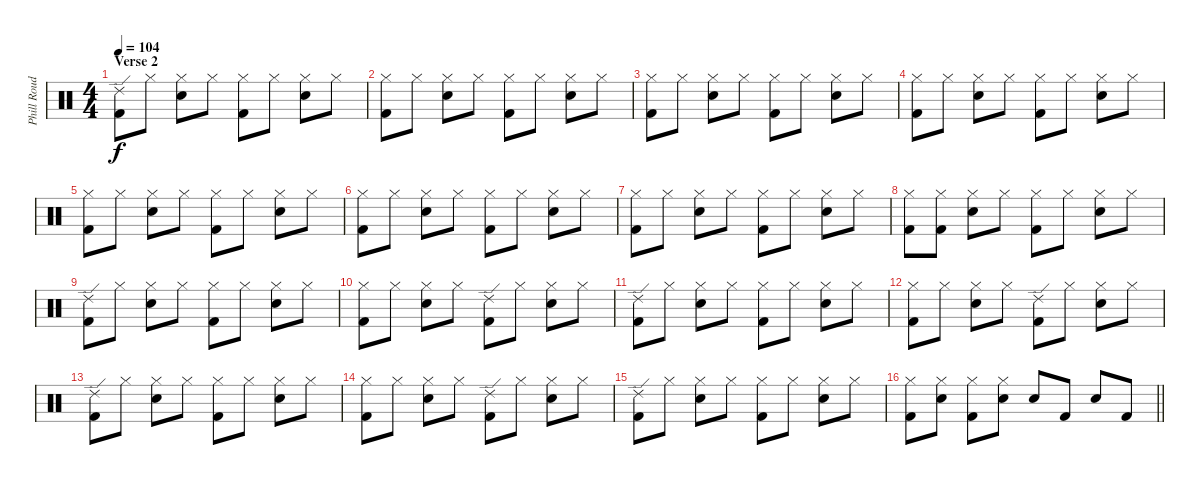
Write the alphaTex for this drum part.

\track ("Phill Roud" "Phill Roud") {instrument percussion}
\staff {score}
\articulation defaults
\ts (4 4)
\section ("" "Verse 2")
\tempo 104
\clef neutral
\ks c
("Kick (hit) 2" "Ride (edge) 2").8{dy f} "Hi-Hat (closed)".8 ("Hi-Hat (closed)" "Snare (hit) 2").8 "Hi-Hat (closed)".8 ("Hi-Hat (closed)" "Kick (hit) 2").8 "Hi-Hat (closed)".8 ("Hi-Hat (closed)" "Snare (hit) 2").8 "Hi-Hat (closed)".8 |
("Hi-Hat (closed)" "Kick (hit) 2").8 "Hi-Hat (closed)".8 ("Hi-Hat (closed)" "Snare (hit) 2").8 "Hi-Hat (closed)".8 ("Hi-Hat (closed)" "Kick (hit) 2").8 "Hi-Hat (closed)".8 ("Hi-Hat (closed)" "Snare (hit) 2").8 "Hi-Hat (closed)".8 |
("Hi-Hat (closed)" "Kick (hit) 2").8 "Hi-Hat (closed)".8 ("Hi-Hat (closed)" "Snare (hit) 2").8 "Hi-Hat (closed)".8 ("Hi-Hat (closed)" "Kick (hit) 2").8 "Hi-Hat (closed)".8 ("Hi-Hat (closed)" "Snare (hit) 2").8 "Hi-Hat (closed)".8 |
("Hi-Hat (closed)" "Kick (hit) 2").8 "Hi-Hat (closed)".8 ("Hi-Hat (closed)" "Snare (hit) 2").8 "Hi-Hat (closed)".8 ("Hi-Hat (closed)" "Kick (hit) 2").8 "Hi-Hat (closed)".8 ("Hi-Hat (closed)" "Snare (hit) 2").8 "Hi-Hat (closed)".8 |
("Hi-Hat (closed)" "Kick (hit) 2").8 "Hi-Hat (closed)".8 ("Hi-Hat (closed)" "Snare (hit) 2").8 "Hi-Hat (closed)".8 ("Hi-Hat (closed)" "Kick (hit) 2").8 "Hi-Hat (closed)".8 ("Hi-Hat (closed)" "Snare (hit) 2").8 "Hi-Hat (closed)".8 |
("Hi-Hat (closed)" "Kick (hit) 2").8 "Hi-Hat (closed)".8 ("Hi-Hat (closed)" "Snare (hit) 2").8 "Hi-Hat (closed)".8 ("Hi-Hat (closed)" "Kick (hit) 2").8 "Hi-Hat (closed)".8 ("Hi-Hat (closed)" "Snare (hit) 2").8 "Hi-Hat (closed)".8 |
("Hi-Hat (closed)" "Kick (hit) 2").8 "Hi-Hat (closed)".8 ("Hi-Hat (closed)" "Snare (hit) 2").8 "Hi-Hat (closed)".8 ("Hi-Hat (closed)" "Kick (hit) 2").8 "Hi-Hat (closed)".8 ("Hi-Hat (closed)" "Snare (hit) 2").8 "Hi-Hat (closed)".8 |
("Hi-Hat (closed)" "Kick (hit) 2").8 ("Hi-Hat (closed)" "Kick (hit) 2").8 ("Hi-Hat (closed)" "Snare (hit) 2").8 "Hi-Hat (closed)".8 ("Hi-Hat (closed)" "Kick (hit) 2").8 "Hi-Hat (closed)".8 ("Hi-Hat (closed)" "Snare (hit) 2").8 "Hi-Hat (closed)".8 |
("Kick (hit) 2" "Ride (edge) 2").8 "Hi-Hat (closed)".8 ("Hi-Hat (closed)" "Snare (hit) 2").8 "Hi-Hat (closed)".8 ("Hi-Hat (closed)" "Kick (hit) 2").8 "Hi-Hat (closed)".8 ("Hi-Hat (closed)" "Snare (hit) 2").8 "Hi-Hat (closed)".8 |
("Hi-Hat (closed)" "Kick (hit) 2").8 "Hi-Hat (closed)".8 ("Hi-Hat (closed)" "Snare (hit) 2").8 "Hi-Hat (closed)".8 ("Kick (hit) 2" "Ride (edge) 2").8 "Hi-Hat (closed)".8 ("Hi-Hat (closed)" "Snare (hit) 2").8 "Hi-Hat (closed)".8 |
("Kick (hit) 2" "Ride (edge) 2").8 "Hi-Hat (closed)".8 ("Hi-Hat (closed)" "Snare (hit) 2").8 "Hi-Hat (closed)".8 ("Hi-Hat (closed)" "Kick (hit) 2").8 "Hi-Hat (closed)".8 ("Hi-Hat (closed)" "Snare (hit) 2").8 "Hi-Hat (closed)".8 |
("Hi-Hat (closed)" "Kick (hit) 2").8 "Hi-Hat (closed)".8 ("Hi-Hat (closed)" "Snare (hit) 2").8 "Hi-Hat (closed)".8 ("Kick (hit) 2" "Ride (edge) 2").8 "Hi-Hat (closed)".8 ("Hi-Hat (closed)" "Snare (hit) 2").8 "Hi-Hat (closed)".8 |
("Kick (hit) 2" "Ride (edge) 2").8 "Hi-Hat (closed)".8 ("Hi-Hat (closed)" "Snare (hit) 2").8 "Hi-Hat (closed)".8 ("Hi-Hat (closed)" "Kick (hit) 2").8 "Hi-Hat (closed)".8 ("Hi-Hat (closed)" "Snare (hit) 2").8 "Hi-Hat (closed)".8 |
("Hi-Hat (closed)" "Kick (hit) 2").8 "Hi-Hat (closed)".8 ("Hi-Hat (closed)" "Snare (hit) 2").8 "Hi-Hat (closed)".8 ("Kick (hit) 2" "Ride (edge) 2").8 "Hi-Hat (closed)".8 ("Hi-Hat (closed)" "Snare (hit) 2").8 "Hi-Hat (closed)".8 |
("Kick (hit) 2" "Ride (edge) 2").8 "Hi-Hat (closed)".8 ("Hi-Hat (closed)" "Snare (hit) 2").8 "Hi-Hat (closed)".8 ("Hi-Hat (closed)" "Kick (hit) 2").8 "Hi-Hat (closed)".8 ("Hi-Hat (closed)" "Snare (hit) 2").8 "Hi-Hat (closed)".8 |
\barLineRight lightlight
("Hi-Hat (closed)" "Kick (hit) 2").8 ("Hi-Hat (closed)" "Snare (hit) 2").8 ("Hi-Hat (closed)" "Kick (hit) 2").8 ("Hi-Hat (closed)" "Snare (hit) 2").8 "Snare (hit) 2".8 "Kick (hit) 2".8 "Snare (hit) 2".8 "Kick (hit) 2".8
